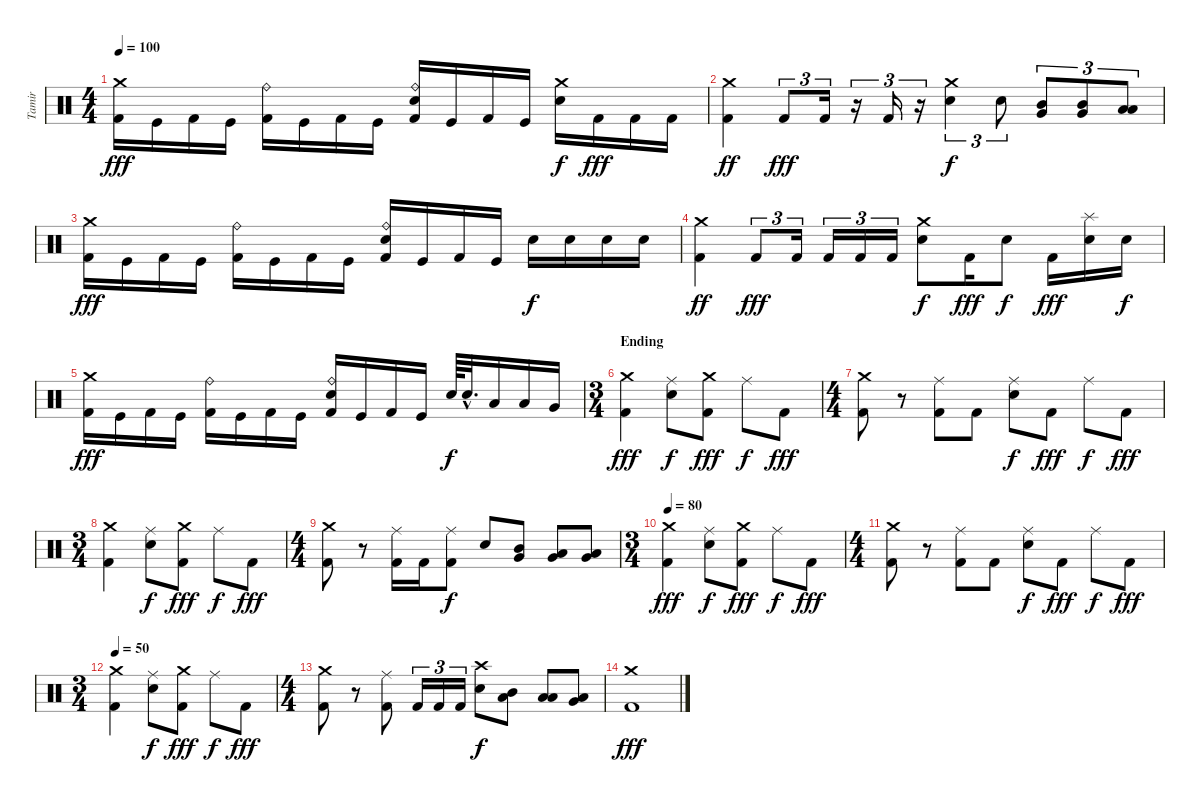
\track ("Tamir" "Tamir") {instrument percussion}
\staff {score}
\articulation defaults
\ts (4 4)
\tempo 100
\clef neutral
\ks c
("Crash medium (hit)" "Kick (hit) 2").16{dy fff} "Kick (hit)".16 "Kick (hit) 2".16 "Kick (hit)".16 ("Ride (bell)" "Kick (hit) 2").16 "Kick (hit)".16 "Kick (hit) 2".16 "Kick (hit)".16 ("Ride (bell)" "Electric Snare (hit)" "Kick (hit) 2").16 "Kick (hit)".16 "Kick (hit) 2".16 "Kick (hit)".16 ("Crash medium (hit)" "Electric Snare (hit)").16{dy f} "Kick (hit) 2".16{dy fff} "Kick (hit) 2".16 "Kick (hit) 2".16 |
("Crash medium (hit)" "Kick (hit) 2").4{dy ff} "Kick (hit) 2".8{tu (3 2) dy fff} "Kick (hit) 2".16{tu (3 2)} r.16{tu (3 2)} "Kick (hit) 2".16{tu (3 2)} r.16{tu (3 2)} ("Crash medium (hit)" "Electric Snare (hit)").4{tu (3 2) dy f} "Electric Snare (hit)".8{tu (3 2)} ("Mid Tom (hit)" "Very Low Tom (hit)").8{tu (3 2)} ("Mid Tom (hit)" "Very Low Tom (hit)").8{tu (3 2)} ("Low Tom (hit)" "Low Floor Tom (hit)").8{tu (3 2)} |
("Crash medium (hit)" "Kick (hit) 2").16{dy fff} "Kick (hit)".16 "Kick (hit) 2".16 "Kick (hit)".16 ("Ride (bell)" "Kick (hit) 2").16 "Kick (hit)".16 "Kick (hit) 2".16 "Kick (hit)".16 ("Ride (bell)" "Electric Snare (hit)" "Kick (hit) 2").16 "Kick (hit)".16 "Kick (hit) 2".16 "Kick (hit)".16 "Electric Snare (hit)".16{dy f} "Electric Snare (hit)".16 "Electric Snare (hit)".16 "Electric Snare (hit)".16 |
("Crash medium (hit)" "Kick (hit) 2").4{dy ff} "Kick (hit) 2".8{tu (3 2) dy fff} "Kick (hit) 2".16{tu (3 2)} "Kick (hit) 2".16{tu (3 2)} "Kick (hit) 2".16{tu (3 2)} "Kick (hit) 2".16{tu (3 2)} ("Crash medium (hit)" "Electric Snare (hit)").8{dy f} "Kick (hit) 2".16{dy fff} "Electric Snare (hit)".8{dy f} "Kick (hit) 2".16{dy fff} ("Splash (hit)" "Electric Snare (hit)").16 "Electric Snare (hit)".16{dy f} |
("Crash medium (hit)" "Kick (hit) 2").16{dy fff} "Kick (hit)".16 "Kick (hit) 2".16 "Kick (hit)".16 ("Ride (bell)" "Kick (hit) 2").16 "Kick (hit)".16 "Kick (hit) 2".16 "Kick (hit)".16 ("Ride (bell)" "Electric Snare (hit)" "Kick (hit) 2").16 "Kick (hit)".16 "Kick (hit) 2".16 "Kick (hit)".16 "Electric Snare (hit)".64{dy f} "Electric Snare (hit)"{hac}.32{d} "Low Tom (hit)".16 "Low Tom (hit)".16 "Very Low Tom (hit)".16 |
\ts (3 4)
\section ("" "Ending")
("Crash medium (hit)" "Kick (hit) 2").4{dy fff} ("Ride (middle)" "Electric Snare (hit)").8{dy f} ("Crash medium (hit)" "Kick (hit) 2").8{dy fff} "Ride (middle)".8{dy f} "Kick (hit) 2".8{dy fff} |
\ts (4 4)
("Crash medium (hit)" "Kick (hit) 2").8 r.8 ("Ride (middle)" "Kick (hit) 2").8 "Kick (hit) 2".8 ("Ride (middle)" "Electric Snare (hit)").8{dy f} "Kick (hit) 2".8{dy fff} "Ride (middle)".8{dy f} "Kick (hit) 2".8{dy fff} |
\ts (3 4)
("Crash medium (hit)" "Kick (hit) 2").4 ("Ride (middle)" "Electric Snare (hit)").8{dy f} ("Crash medium (hit)" "Kick (hit) 2").8{dy fff} "Ride (middle)".8{dy f} "Kick (hit) 2".8{dy fff} |
\ts (4 4)
("Crash medium (hit)" "Kick (hit) 2").8 r.8 ("Ride (middle)" "Kick (hit) 2").16 "Kick (hit) 2".16 ("Ride (middle)" "Kick (hit) 2").8{dy f} "Electric Snare (hit)".8 ("Very Low Tom (hit)" "Mid Tom (hit)").8 ("Very Low Tom (hit)" "Low Tom (hit)").8 ("Low Floor Tom (hit)" "Very Low Tom (hit)").8 |
\ts (3 4)
\tempo 80
("Crash medium (hit)" "Kick (hit) 2").4{dy fff} ("Ride (middle)" "Electric Snare (hit)").8{dy f} ("Crash medium (hit)" "Kick (hit) 2").8{dy fff} "Ride (middle)".8{dy f} "Kick (hit) 2".8{dy fff} |
\ts (4 4)
("Crash medium (hit)" "Kick (hit) 2").8 r.8 ("Ride (middle)" "Kick (hit) 2").8 "Kick (hit) 2".8 ("Ride (middle)" "Electric Snare (hit)").8{dy f} "Kick (hit) 2".8{dy fff} "Ride (middle)".8{dy f} "Kick (hit) 2".8{dy fff} |
\ts (3 4)
\tempo 50
("Crash medium (hit)" "Kick (hit) 2").4 ("Ride (middle)" "Electric Snare (hit)").8{dy f} ("Crash medium (hit)" "Kick (hit) 2").8{dy fff} "Ride (middle)".8{dy f} "Kick (hit) 2".8{dy fff} |
\ts (4 4)
("Crash medium (hit)" "Kick (hit) 2").8 r.8 ("Ride (middle)" "Kick (hit) 2").8 "Kick (hit) 2".16{tu (3 2)} "Kick (hit) 2".16{tu (3 2)} "Kick (hit) 2".16{tu (3 2)} ("Crash high (hit)" "Electric Snare (hit)").8{dy f} ("Mid Tom (hit)" "Low Floor Tom (hit)").8 ("Low Tom (hit)" "Low Floor Tom (hit)").8 ("Very Low Tom (hit)" "Low Floor Tom (hit)").8 |
("Crash medium (hit)" "Kick (hit) 2").1{dy fff}
